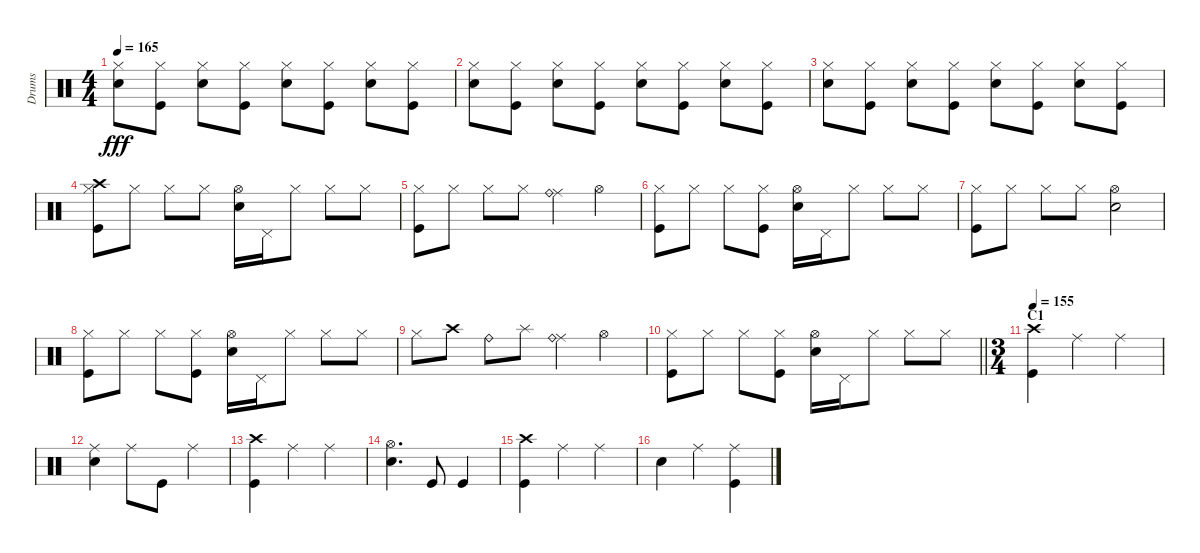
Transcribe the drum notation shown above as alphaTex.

\track ("Drums" "Drums") {instrument percussion}
\staff {score}
\articulation defaults
\ts (4 4)
\tempo 165
\clef neutral
\ks c
("Hi-Hat (closed)" "Snare (hit) 2").8{dy fff} ("Hi-Hat (closed)" "Kick (hit)").8 ("Hi-Hat (closed)" "Snare (hit) 2").8 ("Hi-Hat (closed)" "Kick (hit)").8 ("Hi-Hat (closed)" "Snare (hit) 2").8 ("Hi-Hat (closed)" "Kick (hit)").8 ("Hi-Hat (closed)" "Snare (hit) 2").8 ("Hi-Hat (closed)" "Kick (hit)").8 |
("Hi-Hat (closed)" "Snare (hit) 2").8 ("Hi-Hat (closed)" "Kick (hit)").8 ("Hi-Hat (closed)" "Snare (hit) 2").8 ("Hi-Hat (closed)" "Kick (hit)").8 ("Hi-Hat (closed)" "Snare (hit) 2").8 ("Hi-Hat (closed)" "Kick (hit)").8 ("Hi-Hat (closed)" "Snare (hit) 2").8 ("Hi-Hat (closed)" "Kick (hit)").8 |
("Hi-Hat (closed)" "Snare (hit) 2").8 ("Hi-Hat (closed)" "Kick (hit)").8 ("Hi-Hat (closed)" "Snare (hit) 2").8 ("Hi-Hat (closed)" "Kick (hit)").8 ("Hi-Hat (closed)" "Snare (hit) 2").8 ("Hi-Hat (closed)" "Kick (hit)").8 ("Hi-Hat (closed)" "Snare (hit) 2").8 ("Hi-Hat (closed)" "Kick (hit)").8 |
("Hi-Hat (closed)" "Crash high (hit)" "Kick (hit)").8 "Hi-Hat (closed)".8 "Hi-Hat (closed)".8 "Hi-Hat (closed)".8 ("Hi-Hat (open)" "Snare (hit) 2").16 "Pedal Hi-Hat (hit)".16 "Hi-Hat (closed)".8 "Hi-Hat (closed)".8 "Hi-Hat (closed)".8 |
("Hi-Hat (closed)" "Kick (hit)").8 "Hi-Hat (closed)".8 "Hi-Hat (closed)".8 "Hi-Hat (closed)".8 ("Ride (middle)" "Ride (bell)").4 "Hi-Hat (open)".4 |
("Hi-Hat (closed)" "Kick (hit)").8 "Hi-Hat (closed)".8 "Hi-Hat (closed)".8 ("Hi-Hat (closed)" "Kick (hit)").8 ("Hi-Hat (open)" "Snare (hit) 2").16 "Pedal Hi-Hat (hit)".16 "Hi-Hat (closed)".8 "Hi-Hat (closed)".8 "Hi-Hat (closed)".8 |
("Hi-Hat (closed)" "Kick (hit)").8 "Hi-Hat (closed)".8 "Hi-Hat (closed)".8 "Hi-Hat (closed)".8 ("Hi-Hat (open)" "Snare (hit) 2").2 |
("Hi-Hat (closed)" "Kick (hit)").8 "Hi-Hat (closed)".8 "Hi-Hat (closed)".8 ("Hi-Hat (closed)" "Kick (hit)").8 ("Hi-Hat (open)" "Snare (hit) 2").16 "Pedal Hi-Hat (hit)".16 "Hi-Hat (closed)".8 "Hi-Hat (closed)".8 "Hi-Hat (closed)".8 |
"Hi-Hat (closed)".8 "Crash high (hit)".8 "Ride (bell)".8 "Splash (hit)".8 ("Ride (middle)" "Ride (bell)").4 "Hi-Hat (open)".4 |
\barLineRight lightlight
("Hi-Hat (closed)" "Kick (hit)").8 "Hi-Hat (closed)".8 "Hi-Hat (closed)".8 ("Hi-Hat (closed)" "Kick (hit)").8 ("Hi-Hat (open)" "Snare (hit) 2").16 "Pedal Hi-Hat (hit)".16 "Hi-Hat (closed)".8 "Hi-Hat (closed)".8 "Hi-Hat (closed)".8 |
\ts (3 4)
\section ("" "C1")
\tempo 155
("Crash high (hit)" "Kick (hit)").4 "Ride (middle)".4 "Ride (middle)".4 |
("Ride (middle)" "Snare (hit) 2").4 "Ride (middle)".8 "Kick (hit)".8 "Ride (middle)".4 |
("Crash high (hit)" "Kick (hit)").4 "Ride (middle)".4 "Ride (middle)".4 |
("Hi-Hat (open)" "Snare (hit) 2").4{d} "Kick (hit)".8 "Kick (hit)".4 |
("Crash high (hit)" "Kick (hit)").4 "Ride (middle)".4 "Ride (middle)".4 |
"Snare (hit) 2".4 "Ride (middle)".4 ("Ride (middle)" "Kick (hit)").4
